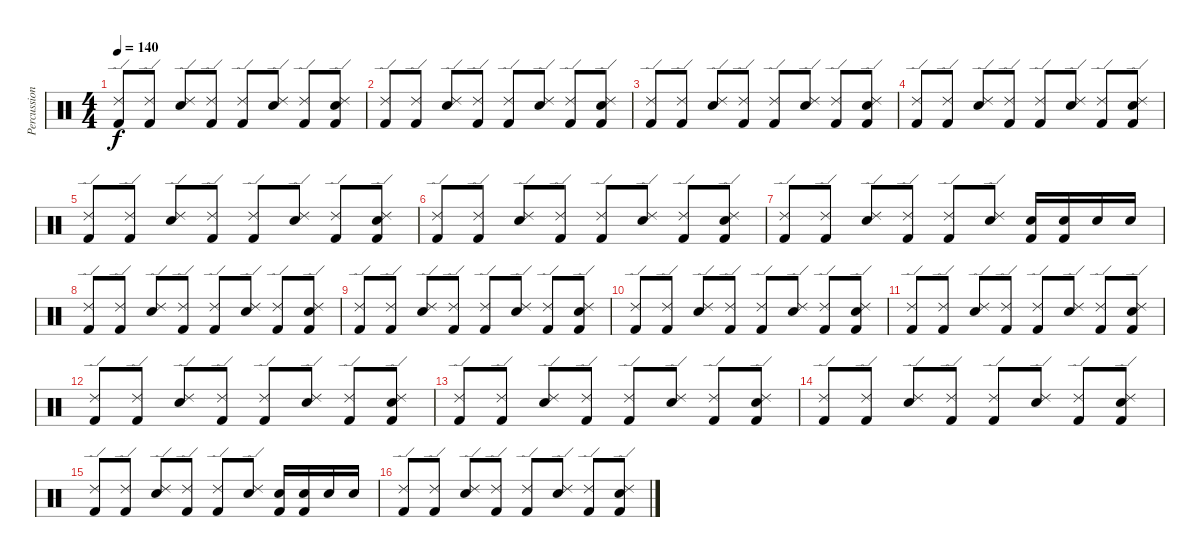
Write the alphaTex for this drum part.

\track ("Percussion" "Percussion") {instrument percussion}
\staff {score}
\articulation defaults
\ts (4 4)
\tempo 140
\clef neutral
\ks c
("Kick (hit) 2" "Ride (edge) 2").8{dy f} ("Kick (hit) 2" "Ride (edge) 2").8 ("Snare (hit) 2" "Ride (edge) 2").8 ("Kick (hit) 2" "Ride (edge) 2").8 ("Kick (hit) 2" "Ride (edge) 2").8 ("Snare (hit) 2" "Ride (edge) 2").8 ("Kick (hit) 2" "Ride (edge) 2").8 ("Kick (hit) 2" "Snare (hit) 2" "Ride (edge) 2").8 |
("Kick (hit) 2" "Ride (edge) 2").8 ("Kick (hit) 2" "Ride (edge) 2").8 ("Snare (hit) 2" "Ride (edge) 2").8 ("Kick (hit) 2" "Ride (edge) 2").8 ("Kick (hit) 2" "Ride (edge) 2").8 ("Snare (hit) 2" "Ride (edge) 2").8 ("Kick (hit) 2" "Ride (edge) 2").8 ("Kick (hit) 2" "Snare (hit) 2" "Ride (edge) 2").8 |
("Kick (hit) 2" "Ride (edge) 2").8 ("Kick (hit) 2" "Ride (edge) 2").8 ("Snare (hit) 2" "Ride (edge) 2").8 ("Kick (hit) 2" "Ride (edge) 2").8 ("Kick (hit) 2" "Ride (edge) 2").8 ("Snare (hit) 2" "Ride (edge) 2").8 ("Kick (hit) 2" "Ride (edge) 2").8 ("Kick (hit) 2" "Snare (hit) 2" "Ride (edge) 2").8 |
("Kick (hit) 2" "Ride (edge) 2").8 ("Kick (hit) 2" "Ride (edge) 2").8 ("Snare (hit) 2" "Ride (edge) 2").8 ("Kick (hit) 2" "Ride (edge) 2").8 ("Kick (hit) 2" "Ride (edge) 2").8 ("Snare (hit) 2" "Ride (edge) 2").8 ("Kick (hit) 2" "Ride (edge) 2").8 ("Kick (hit) 2" "Snare (hit) 2" "Ride (edge) 2").8 |
("Kick (hit) 2" "Ride (edge) 2").8 ("Kick (hit) 2" "Ride (edge) 2").8 ("Snare (hit) 2" "Ride (edge) 2").8 ("Kick (hit) 2" "Ride (edge) 2").8 ("Kick (hit) 2" "Ride (edge) 2").8 ("Snare (hit) 2" "Ride (edge) 2").8 ("Kick (hit) 2" "Ride (edge) 2").8 ("Kick (hit) 2" "Snare (hit) 2" "Ride (edge) 2").8 |
("Kick (hit) 2" "Ride (edge) 2").8 ("Kick (hit) 2" "Ride (edge) 2").8 ("Snare (hit) 2" "Ride (edge) 2").8 ("Kick (hit) 2" "Ride (edge) 2").8 ("Kick (hit) 2" "Ride (edge) 2").8 ("Snare (hit) 2" "Ride (edge) 2").8 ("Kick (hit) 2" "Ride (edge) 2").8 ("Kick (hit) 2" "Snare (hit) 2" "Ride (edge) 2").8 |
("Kick (hit) 2" "Ride (edge) 2").8 ("Kick (hit) 2" "Ride (edge) 2").8 ("Snare (hit) 2" "Ride (edge) 2").8 ("Kick (hit) 2" "Ride (edge) 2").8 ("Kick (hit) 2" "Ride (edge) 2").8 ("Snare (hit) 2" "Ride (edge) 2").8 ("Kick (hit) 2" "Snare (hit) 2").16 ("Kick (hit) 2" "Snare (hit) 2").16 "Snare (hit) 2".16 "Snare (hit) 2".16 |
("Kick (hit) 2" "Ride (edge) 2").8 ("Kick (hit) 2" "Ride (edge) 2").8 ("Snare (hit) 2" "Ride (edge) 2").8 ("Kick (hit) 2" "Ride (edge) 2").8 ("Kick (hit) 2" "Ride (edge) 2").8 ("Snare (hit) 2" "Ride (edge) 2").8 ("Kick (hit) 2" "Ride (edge) 2").8 ("Kick (hit) 2" "Snare (hit) 2" "Ride (edge) 2").8 |
("Kick (hit) 2" "Ride (edge) 2").8 ("Kick (hit) 2" "Ride (edge) 2").8 ("Snare (hit) 2" "Ride (edge) 2").8 ("Kick (hit) 2" "Ride (edge) 2").8 ("Kick (hit) 2" "Ride (edge) 2").8 ("Snare (hit) 2" "Ride (edge) 2").8 ("Kick (hit) 2" "Ride (edge) 2").8 ("Kick (hit) 2" "Snare (hit) 2" "Ride (edge) 2").8 |
("Kick (hit) 2" "Ride (edge) 2").8 ("Kick (hit) 2" "Ride (edge) 2").8 ("Snare (hit) 2" "Ride (edge) 2").8 ("Kick (hit) 2" "Ride (edge) 2").8 ("Kick (hit) 2" "Ride (edge) 2").8 ("Snare (hit) 2" "Ride (edge) 2").8 ("Kick (hit) 2" "Ride (edge) 2").8 ("Kick (hit) 2" "Snare (hit) 2" "Ride (edge) 2").8 |
("Kick (hit) 2" "Ride (edge) 2").8 ("Kick (hit) 2" "Ride (edge) 2").8 ("Snare (hit) 2" "Ride (edge) 2").8 ("Kick (hit) 2" "Ride (edge) 2").8 ("Kick (hit) 2" "Ride (edge) 2").8 ("Snare (hit) 2" "Ride (edge) 2").8 ("Kick (hit) 2" "Ride (edge) 2").8 ("Kick (hit) 2" "Snare (hit) 2" "Ride (edge) 2").8 |
("Kick (hit) 2" "Ride (edge) 2").8 ("Kick (hit) 2" "Ride (edge) 2").8 ("Snare (hit) 2" "Ride (edge) 2").8 ("Kick (hit) 2" "Ride (edge) 2").8 ("Kick (hit) 2" "Ride (edge) 2").8 ("Snare (hit) 2" "Ride (edge) 2").8 ("Kick (hit) 2" "Ride (edge) 2").8 ("Kick (hit) 2" "Snare (hit) 2" "Ride (edge) 2").8 |
("Kick (hit) 2" "Ride (edge) 2").8 ("Kick (hit) 2" "Ride (edge) 2").8 ("Snare (hit) 2" "Ride (edge) 2").8 ("Kick (hit) 2" "Ride (edge) 2").8 ("Kick (hit) 2" "Ride (edge) 2").8 ("Snare (hit) 2" "Ride (edge) 2").8 ("Kick (hit) 2" "Ride (edge) 2").8 ("Kick (hit) 2" "Snare (hit) 2" "Ride (edge) 2").8 |
("Kick (hit) 2" "Ride (edge) 2").8 ("Kick (hit) 2" "Ride (edge) 2").8 ("Snare (hit) 2" "Ride (edge) 2").8 ("Kick (hit) 2" "Ride (edge) 2").8 ("Kick (hit) 2" "Ride (edge) 2").8 ("Snare (hit) 2" "Ride (edge) 2").8 ("Kick (hit) 2" "Ride (edge) 2").8 ("Kick (hit) 2" "Snare (hit) 2" "Ride (edge) 2").8 |
("Kick (hit) 2" "Ride (edge) 2").8 ("Kick (hit) 2" "Ride (edge) 2").8 ("Snare (hit) 2" "Ride (edge) 2").8 ("Kick (hit) 2" "Ride (edge) 2").8 ("Kick (hit) 2" "Ride (edge) 2").8 ("Snare (hit) 2" "Ride (edge) 2").8 ("Kick (hit) 2" "Snare (hit) 2").16 ("Kick (hit) 2" "Snare (hit) 2").16 "Snare (hit) 2".16 "Snare (hit) 2".16 |
("Kick (hit) 2" "Ride (edge) 2").8 ("Kick (hit) 2" "Ride (edge) 2").8 ("Snare (hit) 2" "Ride (edge) 2").8 ("Kick (hit) 2" "Ride (edge) 2").8 ("Kick (hit) 2" "Ride (edge) 2").8 ("Snare (hit) 2" "Ride (edge) 2").8 ("Kick (hit) 2" "Ride (edge) 2").8 ("Kick (hit) 2" "Snare (hit) 2" "Ride (edge) 2").8
